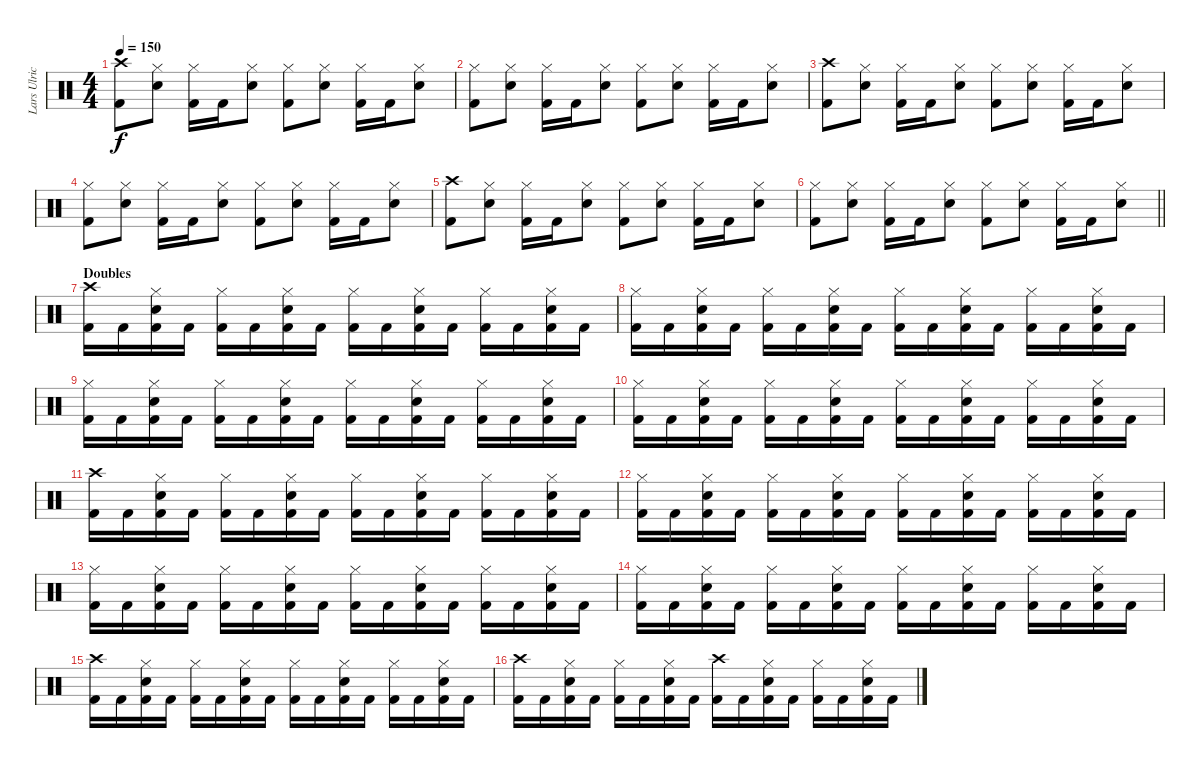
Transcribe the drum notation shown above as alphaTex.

\track ("Lars Ulrich" "Lars Ulric") {instrument percussion}
\staff {score}
\articulation defaults
\ts (4 4)
\tempo 150
\clef neutral
\ks c
("Crash high (hit)" "Kick (hit) 2").8{dy f} ("Hi-Hat (closed)" "Snare (hit) 2").8 ("Hi-Hat (closed)" "Kick (hit) 2").16 "Kick (hit) 2".16 ("Hi-Hat (closed)" "Snare (hit) 2").8 ("Hi-Hat (closed)" "Kick (hit) 2").8 ("Hi-Hat (closed)" "Snare (hit) 2").8 ("Hi-Hat (closed)" "Kick (hit) 2").16 "Kick (hit) 2".16 ("Hi-Hat (closed)" "Snare (hit) 2").8 |
("Hi-Hat (closed)" "Kick (hit) 2").8 ("Hi-Hat (closed)" "Snare (hit) 2").8 ("Hi-Hat (closed)" "Kick (hit) 2").16 "Kick (hit) 2".16 ("Hi-Hat (closed)" "Snare (hit) 2").8 ("Hi-Hat (closed)" "Kick (hit) 2").8 ("Hi-Hat (closed)" "Snare (hit) 2").8 ("Hi-Hat (closed)" "Kick (hit) 2").16 "Kick (hit) 2".16 ("Hi-Hat (closed)" "Snare (hit) 2").8 |
("Crash high (hit)" "Kick (hit) 2").8 ("Hi-Hat (closed)" "Snare (hit) 2").8 ("Hi-Hat (closed)" "Kick (hit) 2").16 "Kick (hit) 2".16 ("Hi-Hat (closed)" "Snare (hit) 2").8 ("Hi-Hat (closed)" "Kick (hit) 2").8 ("Hi-Hat (closed)" "Snare (hit) 2").8 ("Hi-Hat (closed)" "Kick (hit) 2").16 "Kick (hit) 2".16 ("Hi-Hat (closed)" "Snare (hit) 2").8 |
("Hi-Hat (closed)" "Kick (hit) 2").8 ("Hi-Hat (closed)" "Snare (hit) 2").8 ("Hi-Hat (closed)" "Kick (hit) 2").16 "Kick (hit) 2".16 ("Hi-Hat (closed)" "Snare (hit) 2").8 ("Hi-Hat (closed)" "Kick (hit) 2").8 ("Hi-Hat (closed)" "Snare (hit) 2").8 ("Hi-Hat (closed)" "Kick (hit) 2").16 "Kick (hit) 2".16 ("Hi-Hat (closed)" "Snare (hit) 2").8 |
("Crash high (hit)" "Kick (hit) 2").8 ("Hi-Hat (closed)" "Snare (hit) 2").8 ("Hi-Hat (closed)" "Kick (hit) 2").16 "Kick (hit) 2".16 ("Hi-Hat (closed)" "Snare (hit) 2").8 ("Hi-Hat (closed)" "Kick (hit) 2").8 ("Hi-Hat (closed)" "Snare (hit) 2").8 ("Hi-Hat (closed)" "Kick (hit) 2").16 "Kick (hit) 2".16 ("Hi-Hat (closed)" "Snare (hit) 2").8 |
\barLineRight lightlight
("Hi-Hat (closed)" "Kick (hit) 2").8 ("Hi-Hat (closed)" "Snare (hit) 2").8 ("Hi-Hat (closed)" "Kick (hit) 2").16 "Kick (hit) 2".16 ("Hi-Hat (closed)" "Snare (hit) 2").8 ("Hi-Hat (closed)" "Kick (hit) 2").8 ("Hi-Hat (closed)" "Snare (hit) 2").8 ("Hi-Hat (closed)" "Kick (hit) 2").16 "Kick (hit) 2".16 ("Hi-Hat (closed)" "Snare (hit) 2").8 |
\section ("" "Doubles")
("Crash high (hit)" "Kick (hit) 2").16 "Kick (hit) 2".16 ("Hi-Hat (closed)" "Snare (hit) 2" "Kick (hit) 2").16 "Kick (hit) 2".16 ("Hi-Hat (closed)" "Kick (hit) 2").16 "Kick (hit) 2".16 ("Hi-Hat (closed)" "Snare (hit) 2" "Kick (hit) 2").16 "Kick (hit) 2".16 ("Hi-Hat (closed)" "Kick (hit) 2").16 "Kick (hit) 2".16 ("Hi-Hat (closed)" "Snare (hit) 2" "Kick (hit) 2").16 "Kick (hit) 2".16 ("Hi-Hat (closed)" "Kick (hit) 2").16 "Kick (hit) 2".16 ("Hi-Hat (closed)" "Snare (hit) 2" "Kick (hit) 2").16 "Kick (hit) 2".16 |
("Hi-Hat (closed)" "Kick (hit) 2").16 "Kick (hit) 2".16 ("Hi-Hat (closed)" "Snare (hit) 2" "Kick (hit) 2").16 "Kick (hit) 2".16 ("Hi-Hat (closed)" "Kick (hit) 2").16 "Kick (hit) 2".16 ("Hi-Hat (closed)" "Snare (hit) 2" "Kick (hit) 2").16 "Kick (hit) 2".16 ("Hi-Hat (closed)" "Kick (hit) 2").16 "Kick (hit) 2".16 ("Hi-Hat (closed)" "Snare (hit) 2" "Kick (hit) 2").16 "Kick (hit) 2".16 ("Hi-Hat (closed)" "Kick (hit) 2").16 "Kick (hit) 2".16 ("Hi-Hat (closed)" "Snare (hit) 2" "Kick (hit) 2").16 "Kick (hit) 2".16 |
("Hi-Hat (closed)" "Kick (hit) 2").16 "Kick (hit) 2".16 ("Hi-Hat (closed)" "Snare (hit) 2" "Kick (hit) 2").16 "Kick (hit) 2".16 ("Hi-Hat (closed)" "Kick (hit) 2").16 "Kick (hit) 2".16 ("Hi-Hat (closed)" "Snare (hit) 2" "Kick (hit) 2").16 "Kick (hit) 2".16 ("Hi-Hat (closed)" "Kick (hit) 2").16 "Kick (hit) 2".16 ("Hi-Hat (closed)" "Snare (hit) 2" "Kick (hit) 2").16 "Kick (hit) 2".16 ("Hi-Hat (closed)" "Kick (hit) 2").16 "Kick (hit) 2".16 ("Hi-Hat (closed)" "Snare (hit) 2" "Kick (hit) 2").16 "Kick (hit) 2".16 |
("Hi-Hat (closed)" "Kick (hit) 2").16 "Kick (hit) 2".16 ("Hi-Hat (closed)" "Snare (hit) 2" "Kick (hit) 2").16 "Kick (hit) 2".16 ("Hi-Hat (closed)" "Kick (hit) 2").16 "Kick (hit) 2".16 ("Hi-Hat (closed)" "Snare (hit) 2" "Kick (hit) 2").16 "Kick (hit) 2".16 ("Hi-Hat (closed)" "Kick (hit) 2").16 "Kick (hit) 2".16 ("Hi-Hat (closed)" "Snare (hit) 2" "Kick (hit) 2").16 "Kick (hit) 2".16 ("Hi-Hat (closed)" "Kick (hit) 2").16 "Kick (hit) 2".16 ("Hi-Hat (closed)" "Snare (hit) 2" "Kick (hit) 2").16 "Kick (hit) 2".16 |
("Crash high (hit)" "Kick (hit) 2").16 "Kick (hit) 2".16 ("Hi-Hat (closed)" "Snare (hit) 2" "Kick (hit) 2").16 "Kick (hit) 2".16 ("Hi-Hat (closed)" "Kick (hit) 2").16 "Kick (hit) 2".16 ("Hi-Hat (closed)" "Snare (hit) 2" "Kick (hit) 2").16 "Kick (hit) 2".16 ("Hi-Hat (closed)" "Kick (hit) 2").16 "Kick (hit) 2".16 ("Hi-Hat (closed)" "Snare (hit) 2" "Kick (hit) 2").16 "Kick (hit) 2".16 ("Hi-Hat (closed)" "Kick (hit) 2").16 "Kick (hit) 2".16 ("Hi-Hat (closed)" "Snare (hit) 2" "Kick (hit) 2").16 "Kick (hit) 2".16 |
("Hi-Hat (closed)" "Kick (hit) 2").16 "Kick (hit) 2".16 ("Hi-Hat (closed)" "Snare (hit) 2" "Kick (hit) 2").16 "Kick (hit) 2".16 ("Hi-Hat (closed)" "Kick (hit) 2").16 "Kick (hit) 2".16 ("Hi-Hat (closed)" "Snare (hit) 2" "Kick (hit) 2").16 "Kick (hit) 2".16 ("Hi-Hat (closed)" "Kick (hit) 2").16 "Kick (hit) 2".16 ("Hi-Hat (closed)" "Snare (hit) 2" "Kick (hit) 2").16 "Kick (hit) 2".16 ("Hi-Hat (closed)" "Kick (hit) 2").16 "Kick (hit) 2".16 ("Hi-Hat (closed)" "Snare (hit) 2" "Kick (hit) 2").16 "Kick (hit) 2".16 |
("Hi-Hat (closed)" "Kick (hit) 2").16 "Kick (hit) 2".16 ("Hi-Hat (closed)" "Snare (hit) 2" "Kick (hit) 2").16 "Kick (hit) 2".16 ("Hi-Hat (closed)" "Kick (hit) 2").16 "Kick (hit) 2".16 ("Hi-Hat (closed)" "Snare (hit) 2" "Kick (hit) 2").16 "Kick (hit) 2".16 ("Hi-Hat (closed)" "Kick (hit) 2").16 "Kick (hit) 2".16 ("Hi-Hat (closed)" "Snare (hit) 2" "Kick (hit) 2").16 "Kick (hit) 2".16 ("Hi-Hat (closed)" "Kick (hit) 2").16 "Kick (hit) 2".16 ("Hi-Hat (closed)" "Snare (hit) 2" "Kick (hit) 2").16 "Kick (hit) 2".16 |
("Hi-Hat (closed)" "Kick (hit) 2").16 "Kick (hit) 2".16 ("Hi-Hat (closed)" "Snare (hit) 2" "Kick (hit) 2").16 "Kick (hit) 2".16 ("Hi-Hat (closed)" "Kick (hit) 2").16 "Kick (hit) 2".16 ("Hi-Hat (closed)" "Snare (hit) 2" "Kick (hit) 2").16 "Kick (hit) 2".16 ("Hi-Hat (closed)" "Kick (hit) 2").16 "Kick (hit) 2".16 ("Hi-Hat (closed)" "Snare (hit) 2" "Kick (hit) 2").16 "Kick (hit) 2".16 ("Hi-Hat (closed)" "Kick (hit) 2").16 "Kick (hit) 2".16 ("Hi-Hat (closed)" "Snare (hit) 2" "Kick (hit) 2").16 "Kick (hit) 2".16 |
("Crash high (hit)" "Kick (hit) 2").16 "Kick (hit) 2".16 ("Hi-Hat (closed)" "Snare (hit) 2" "Kick (hit) 2").16 "Kick (hit) 2".16 ("Hi-Hat (closed)" "Kick (hit) 2").16 "Kick (hit) 2".16 ("Hi-Hat (closed)" "Snare (hit) 2" "Kick (hit) 2").16 "Kick (hit) 2".16 ("Hi-Hat (closed)" "Kick (hit) 2").16 "Kick (hit) 2".16 ("Hi-Hat (closed)" "Snare (hit) 2" "Kick (hit) 2").16 "Kick (hit) 2".16 ("Hi-Hat (closed)" "Kick (hit) 2").16 "Kick (hit) 2".16 ("Hi-Hat (closed)" "Snare (hit) 2" "Kick (hit) 2").16 "Kick (hit) 2".16 |
("Crash high (hit)" "Kick (hit) 2").16 "Kick (hit) 2".16 ("Hi-Hat (closed)" "Snare (hit) 2" "Kick (hit) 2").16 "Kick (hit) 2".16 ("Hi-Hat (closed)" "Kick (hit) 2").16 "Kick (hit) 2".16 ("Hi-Hat (closed)" "Snare (hit) 2" "Kick (hit) 2").16 "Kick (hit) 2".16 ("Crash high (hit)" "Kick (hit) 2").16 "Kick (hit) 2".16 ("Hi-Hat (closed)" "Snare (hit) 2" "Kick (hit) 2").16 "Kick (hit) 2".16 ("Hi-Hat (closed)" "Kick (hit) 2").16 "Kick (hit) 2".16 ("Hi-Hat (closed)" "Snare (hit) 2" "Kick (hit) 2").16 "Kick (hit) 2".16
